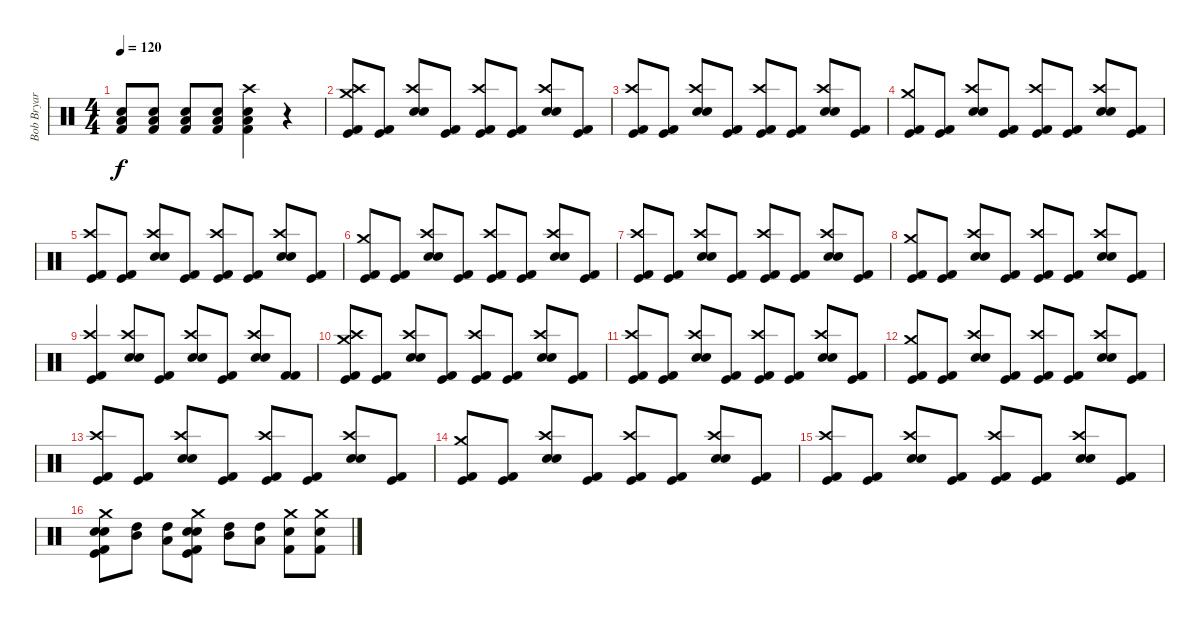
\track ("Bob Bryar" "Bob Bryar") {instrument percussion}
\staff {score}
\articulation defaults
\ts (4 4)
\tempo 120
\clef neutral
\ks c
("Snare (hit) 2" "Low Tom (hit)" "Kick (hit) 2").8{dy f} ("Snare (hit) 2" "Low Tom (hit)" "Kick (hit) 2").8 ("Snare (hit) 2" "Low Tom (hit)" "Kick (hit) 2").8 ("Snare (hit) 2" "Low Tom (hit)" "Kick (hit) 2").8 ("Crash high (hit)" "Snare (hit) 2" "Low Tom (hit)" "Kick (hit) 2").4 r.4 |
("Crash medium (hit)" "Crash high (hit)" "Kick (hit)" "Kick (hit) 2").8 ("Kick (hit)" "Kick (hit) 2").8 ("Crash high (hit)" "Electric Snare (hit)" "Snare (hit) 2").8 ("Kick (hit)" "Kick (hit) 2").8 ("Crash high (hit)" "Kick (hit)" "Kick (hit) 2").8 ("Kick (hit)" "Kick (hit) 2").8 ("Crash high (hit)" "Electric Snare (hit)" "Snare (hit) 2").8 ("Kick (hit)" "Kick (hit) 2").8 |
("Crash high (hit)" "Kick (hit)" "Kick (hit) 2").8 ("Kick (hit)" "Kick (hit) 2").8 ("Crash high (hit)" "Electric Snare (hit)" "Snare (hit) 2").8 ("Kick (hit)" "Kick (hit) 2").8 ("Crash high (hit)" "Kick (hit)" "Kick (hit) 2").8 ("Kick (hit)" "Kick (hit) 2").8 ("Crash high (hit)" "Electric Snare (hit)" "Snare (hit) 2").8 ("Kick (hit)" "Kick (hit) 2").8 |
("Crash medium (hit)" "Kick (hit)" "Kick (hit) 2").8 ("Kick (hit)" "Kick (hit) 2").8 ("Crash high (hit)" "Electric Snare (hit)" "Snare (hit) 2").8 ("Kick (hit)" "Kick (hit) 2").8 ("Crash high (hit)" "Kick (hit)" "Kick (hit) 2").8 ("Kick (hit)" "Kick (hit) 2").8 ("Crash high (hit)" "Electric Snare (hit)" "Snare (hit) 2").8 ("Kick (hit)" "Kick (hit) 2").8 |
("Crash high (hit)" "Kick (hit)" "Kick (hit) 2").8 ("Kick (hit)" "Kick (hit) 2").8 ("Crash high (hit)" "Electric Snare (hit)" "Snare (hit) 2").8 ("Kick (hit)" "Kick (hit) 2").8 ("Crash high (hit)" "Kick (hit)" "Kick (hit) 2").8 ("Kick (hit)" "Kick (hit) 2").8 ("Crash high (hit)" "Electric Snare (hit)" "Snare (hit) 2").8 ("Kick (hit)" "Kick (hit) 2").8 |
("Crash medium (hit)" "Kick (hit)" "Kick (hit) 2").8 ("Kick (hit)" "Kick (hit) 2").8 ("Crash high (hit)" "Electric Snare (hit)" "Snare (hit) 2").8 ("Kick (hit)" "Kick (hit) 2").8 ("Crash high (hit)" "Kick (hit)" "Kick (hit) 2").8 ("Kick (hit)" "Kick (hit) 2").8 ("Crash high (hit)" "Electric Snare (hit)" "Snare (hit) 2").8 ("Kick (hit)" "Kick (hit) 2").8 |
("Crash high (hit)" "Kick (hit)" "Kick (hit) 2").8 ("Kick (hit)" "Kick (hit) 2").8 ("Crash high (hit)" "Electric Snare (hit)" "Snare (hit) 2").8 ("Kick (hit)" "Kick (hit) 2").8 ("Crash high (hit)" "Kick (hit)" "Kick (hit) 2").8 ("Kick (hit)" "Kick (hit) 2").8 ("Crash high (hit)" "Electric Snare (hit)" "Snare (hit) 2").8 ("Kick (hit)" "Kick (hit) 2").8 |
("Crash medium (hit)" "Kick (hit)" "Kick (hit) 2").8 ("Kick (hit)" "Kick (hit) 2").8 ("Crash high (hit)" "Electric Snare (hit)" "Snare (hit) 2").8 ("Kick (hit)" "Kick (hit) 2").8 ("Crash high (hit)" "Kick (hit)" "Kick (hit) 2").8 ("Kick (hit)" "Kick (hit) 2").8 ("Crash high (hit)" "Electric Snare (hit)" "Snare (hit) 2").8 ("Kick (hit)" "Kick (hit) 2").8 |
("Crash high (hit)" "Kick (hit)" "Kick (hit) 2").4 ("Crash high (hit)" "Electric Snare (hit)" "Snare (hit) 2").8 ("Kick (hit)" "Kick (hit) 2").8 ("Crash high (hit)" "Electric Snare (hit)" "Snare (hit) 2").8 ("Kick (hit)" "Kick (hit) 2").8 ("Crash high (hit)" "Electric Snare (hit)" "Snare (hit) 2").8 ("Kick (hit) 2" "Kick (hit) 2").8 |
("Crash medium (hit)" "Crash high (hit)" "Kick (hit)" "Kick (hit) 2").8 ("Kick (hit)" "Kick (hit) 2").8 ("Crash high (hit)" "Electric Snare (hit)" "Snare (hit) 2").8 ("Kick (hit)" "Kick (hit) 2").8 ("Crash high (hit)" "Kick (hit)" "Kick (hit) 2").8 ("Kick (hit)" "Kick (hit) 2").8 ("Crash high (hit)" "Electric Snare (hit)" "Snare (hit) 2").8 ("Kick (hit)" "Kick (hit) 2").8 |
("Crash high (hit)" "Kick (hit)" "Kick (hit) 2").8 ("Kick (hit)" "Kick (hit) 2").8 ("Crash high (hit)" "Electric Snare (hit)" "Snare (hit) 2").8 ("Kick (hit)" "Kick (hit) 2").8 ("Crash high (hit)" "Kick (hit)" "Kick (hit) 2").8 ("Kick (hit)" "Kick (hit) 2").8 ("Crash high (hit)" "Electric Snare (hit)" "Snare (hit) 2").8 ("Kick (hit)" "Kick (hit) 2").8 |
("Crash medium (hit)" "Kick (hit)" "Kick (hit) 2").8 ("Kick (hit)" "Kick (hit) 2").8 ("Crash high (hit)" "Electric Snare (hit)" "Snare (hit) 2").8 ("Kick (hit)" "Kick (hit) 2").8 ("Crash high (hit)" "Kick (hit)" "Kick (hit) 2").8 ("Kick (hit)" "Kick (hit) 2").8 ("Crash high (hit)" "Electric Snare (hit)" "Snare (hit) 2").8 ("Kick (hit)" "Kick (hit) 2").8 |
("Crash high (hit)" "Kick (hit)" "Kick (hit) 2").8 ("Kick (hit)" "Kick (hit) 2").8 ("Crash high (hit)" "Electric Snare (hit)" "Snare (hit) 2").8 ("Kick (hit)" "Kick (hit) 2").8 ("Crash high (hit)" "Kick (hit)" "Kick (hit) 2").8 ("Kick (hit)" "Kick (hit) 2").8 ("Crash high (hit)" "Electric Snare (hit)" "Snare (hit) 2").8 ("Kick (hit)" "Kick (hit) 2").8 |
("Crash medium (hit)" "Kick (hit)" "Kick (hit) 2").8 ("Kick (hit)" "Kick (hit) 2").8 ("Crash high (hit)" "Electric Snare (hit)" "Snare (hit) 2").8 ("Kick (hit)" "Kick (hit) 2").8 ("Crash high (hit)" "Kick (hit)" "Kick (hit) 2").8 ("Kick (hit)" "Kick (hit) 2").8 ("Crash high (hit)" "Electric Snare (hit)" "Snare (hit) 2").8 ("Kick (hit)" "Kick (hit) 2").8 |
("Crash high (hit)" "Kick (hit)" "Kick (hit) 2").8 ("Kick (hit)" "Kick (hit) 2").8 ("Crash high (hit)" "Electric Snare (hit)" "Snare (hit) 2").8 ("Kick (hit)" "Kick (hit) 2").8 ("Crash high (hit)" "Kick (hit)" "Kick (hit) 2").8 ("Kick (hit)" "Kick (hit) 2").8 ("Crash high (hit)" "Electric Snare (hit)" "Snare (hit) 2").8 ("Kick (hit)" "Kick (hit) 2").8 |
("Crash medium (hit)" "Electric Snare (hit)" "Snare (hit) 2" "Kick (hit)" "Kick (hit) 2").8 ("Mid Tom (hit)" "High Tom (hit)").8 ("High Tom (hit)" "Low Tom (hit)").8 ("Crash medium (hit)" "Electric Snare (hit)" "Snare (hit) 2" "Kick (hit)" "Kick (hit) 2").8 ("Mid Tom (hit)" "High Tom (hit)").8 ("High Tom (hit)" "Low Tom (hit)").8 ("Crash medium (hit)" "Snare (hit) 2" "Kick (hit) 2").8 ("Crash medium (hit)" "Snare (hit) 2" "Kick (hit) 2").8
